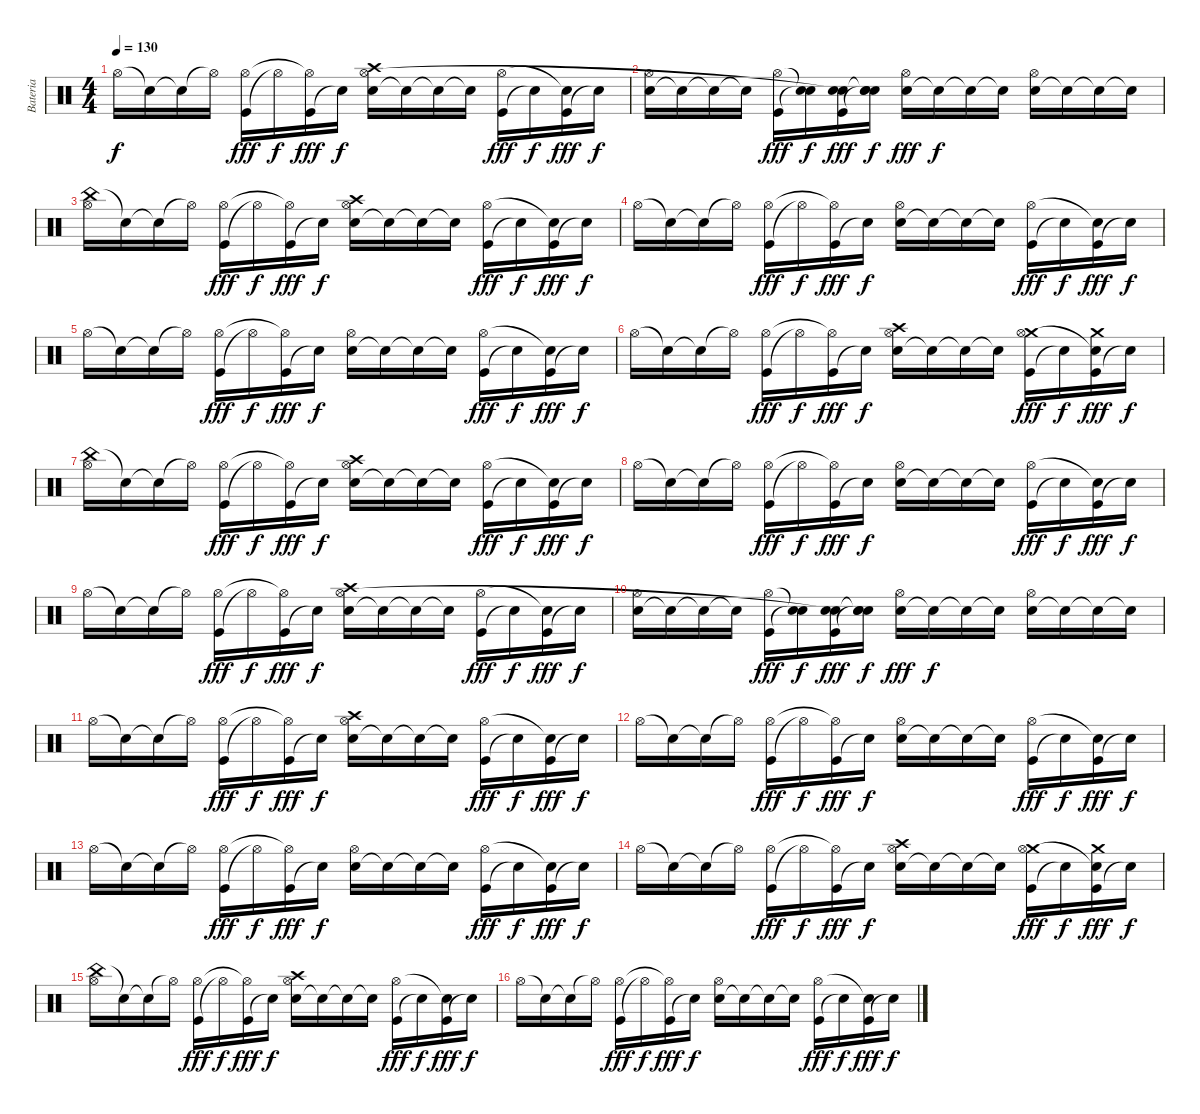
\track ("Bateria" "Bateria") {instrument percussion}
\staff {score}
\articulation defaults
\ts (4 4)
\tempo 130
\clef neutral
\ks c "Hi-Hat (open)".16{dy f} "Snare (hit)"{t}.16 "Snare (hit)"{t}.16 "Hi-Hat (open)"{t}.16
("Kick (hit)" "Hi-Hat (open)").16{dy fff} "Hi-Hat (open)"{t}.16{dy f} ("Kick (hit)" "Hi-Hat (open)"{t}).16{dy fff} "Snare (hit)"{t}.16{dy f} ("Electric Snare (hit)" "Crash high (hit)" "Hi-Hat (open)").16 "Snare (hit)"{t}.16 "Snare (hit)"{t}.16 "Snare (hit)"{t}.16 ("Kick (hit)" "Hi-Hat (open)").16{dy fff} "Snare (hit)"{t}.16{dy f} ("Kick (hit)" "Snare (hit)"{t}).16{dy fff} "Snare (hit)"{t}.16{dy f} |
("Electric Snare (hit)" "Hi-Hat (open)").16 "Snare (hit)"{t}.16 "Snare (hit)"{t}.16 "Snare (hit)"{t}.16 ("Kick (hit)" "Hi-Hat (open)").16{dy fff} ("Snare (hit)"{t} "Snare (hit)"{t}).16{dy f} ("Kick (hit)" "Electric Snare (hit)" "Snare (hit)"{t}).16{dy fff} ("Snare (hit)"{t} "Electric Snare (hit)" "Snare (hit)"{t}).16{dy f} ("Electric Snare (hit)" "Hi-Hat (open)").16{dy fff} "Snare (hit)"{t}.16{dy f} "Snare (hit)"{t}.16 "Snare (hit)"{t}.16 ("Electric Snare (hit)" "Hi-Hat (open)").16 "Snare (hit)"{t}.16 "Snare (hit)"{t}.16 "Snare (hit)"{t}.16 |
("China (hit)" "Hi-Hat (open)").16 "Snare (hit)"{t}.16 "Snare (hit)"{t}.16 "Hi-Hat (open)"{t}.16 ("Kick (hit)" "Hi-Hat (open)").16{dy fff} "Hi-Hat (open)"{t}.16{dy f} ("Kick (hit)" "Hi-Hat (open)"{t}).16{dy fff} "Snare (hit)"{t}.16{dy f} ("Electric Snare (hit)" "Crash high (hit)" "Hi-Hat (open)").16 "Snare (hit)"{t}.16 "Snare (hit)"{t}.16 "Snare (hit)"{t}.16 ("Kick (hit)" "Hi-Hat (open)").16{dy fff} "Snare (hit)"{t}.16{dy f} ("Kick (hit)" "Snare (hit)"{t}).16{dy fff} "Snare (hit)"{t}.16{dy f} |
"Hi-Hat (open)".16 "Snare (hit)"{t}.16 "Snare (hit)"{t}.16 "Hi-Hat (open)"{t}.16 ("Kick (hit)" "Hi-Hat (open)").16{dy fff} "Hi-Hat (open)"{t}.16{dy f} ("Kick (hit)" "Hi-Hat (open)"{t}).16{dy fff} "Snare (hit)"{t}.16{dy f} ("Electric Snare (hit)" "Hi-Hat (open)").16 "Snare (hit)"{t}.16 "Snare (hit)"{t}.16 "Snare (hit)"{t}.16 ("Kick (hit)" "Hi-Hat (open)").16{dy fff} "Snare (hit)"{t}.16{dy f} ("Kick (hit)" "Snare (hit)"{t}).16{dy fff} "Snare (hit)"{t}.16{dy f} |
"Hi-Hat (open)".16 "Snare (hit)"{t}.16 "Snare (hit)"{t}.16 "Hi-Hat (open)"{t}.16 ("Kick (hit)" "Hi-Hat (open)").16{dy fff} "Hi-Hat (open)"{t}.16{dy f} ("Kick (hit)" "Hi-Hat (open)"{t}).16{dy fff} "Snare (hit)"{t}.16{dy f} ("Electric Snare (hit)" "Hi-Hat (open)").16 "Snare (hit)"{t}.16 "Snare (hit)"{t}.16 "Snare (hit)"{t}.16 ("Kick (hit)" "Hi-Hat (open)").16{dy fff} "Snare (hit)"{t}.16{dy f} ("Kick (hit)" "Snare (hit)"{t}).16{dy fff} "Snare (hit)"{t}.16{dy f} |
"Hi-Hat (open)".16 "Snare (hit)"{t}.16 "Snare (hit)"{t}.16 "Hi-Hat (open)"{t}.16 ("Kick (hit)" "Hi-Hat (open)").16{dy fff} "Hi-Hat (open)"{t}.16{dy f} ("Kick (hit)" "Hi-Hat (open)"{t}).16{dy fff} "Snare (hit)"{t}.16{dy f} ("Electric Snare (hit)" "Crash high (hit)" "Hi-Hat (open)").16 "Snare (hit)"{t}.16 "Snare (hit)"{t}.16 "Snare (hit)"{t}.16 ("Kick (hit)" "Crash medium (hit)" "Hi-Hat (open)").16{dy fff} "Snare (hit)"{t}.16{dy f} ("Kick (hit)" "Crash medium (hit)" "Snare (hit)"{t}).16{dy fff} "Snare (hit)"{t}.16{dy f} |
("China (hit)" "Hi-Hat (open)").16 "Snare (hit)"{t}.16 "Snare (hit)"{t}.16 "Hi-Hat (open)"{t}.16 ("Kick (hit)" "Hi-Hat (open)").16{dy fff} "Hi-Hat (open)"{t}.16{dy f} ("Kick (hit)" "Hi-Hat (open)"{t}).16{dy fff} "Snare (hit)"{t}.16{dy f} ("Electric Snare (hit)" "Crash high (hit)" "Hi-Hat (open)").16 "Snare (hit)"{t}.16 "Snare (hit)"{t}.16 "Snare (hit)"{t}.16 ("Kick (hit)" "Hi-Hat (open)").16{dy fff} "Snare (hit)"{t}.16{dy f} ("Kick (hit)" "Snare (hit)"{t}).16{dy fff} "Snare (hit)"{t}.16{dy f} |
"Hi-Hat (open)".16 "Snare (hit)"{t}.16 "Snare (hit)"{t}.16 "Hi-Hat (open)"{t}.16 ("Kick (hit)" "Hi-Hat (open)").16{dy fff} "Hi-Hat (open)"{t}.16{dy f} ("Kick (hit)" "Hi-Hat (open)"{t}).16{dy fff} "Snare (hit)"{t}.16{dy f} ("Electric Snare (hit)" "Hi-Hat (open)").16 "Snare (hit)"{t}.16 "Snare (hit)"{t}.16 "Snare (hit)"{t}.16 ("Kick (hit)" "Hi-Hat (open)").16{dy fff} "Snare (hit)"{t}.16{dy f} ("Kick (hit)" "Snare (hit)"{t}).16{dy fff} "Snare (hit)"{t}.16{dy f} |
"Hi-Hat (open)".16 "Snare (hit)"{t}.16 "Snare (hit)"{t}.16 "Hi-Hat (open)"{t}.16 ("Kick (hit)" "Hi-Hat (open)").16{dy fff} "Hi-Hat (open)"{t}.16{dy f} ("Kick (hit)" "Hi-Hat (open)"{t}).16{dy fff} "Snare (hit)"{t}.16{dy f} ("Electric Snare (hit)" "Crash high (hit)" "Hi-Hat (open)").16 "Snare (hit)"{t}.16 "Snare (hit)"{t}.16 "Snare (hit)"{t}.16 ("Kick (hit)" "Hi-Hat (open)").16{dy fff} "Snare (hit)"{t}.16{dy f} ("Kick (hit)" "Snare (hit)"{t}).16{dy fff} "Snare (hit)"{t}.16{dy f} |
("Electric Snare (hit)" "Hi-Hat (open)").16 "Snare (hit)"{t}.16 "Snare (hit)"{t}.16 "Snare (hit)"{t}.16 ("Kick (hit)" "Hi-Hat (open)").16{dy fff} ("Snare (hit)"{t} "Snare (hit)"{t}).16{dy f} ("Kick (hit)" "Electric Snare (hit)" "Snare (hit)"{t}).16{dy fff} ("Snare (hit)"{t} "Electric Snare (hit)" "Snare (hit)"{t}).16{dy f} ("Electric Snare (hit)" "Hi-Hat (open)").16{dy fff} "Snare (hit)"{t}.16{dy f} "Snare (hit)"{t}.16 "Snare (hit)"{t}.16 ("Electric Snare (hit)" "Hi-Hat (open)").16 "Snare (hit)"{t}.16 "Snare (hit)"{t}.16 "Snare (hit)"{t}.16 |
"Hi-Hat (open)".16 "Snare (hit)"{t}.16 "Snare (hit)"{t}.16 "Hi-Hat (open)"{t}.16 ("Kick (hit)" "Hi-Hat (open)").16{dy fff} "Hi-Hat (open)"{t}.16{dy f} ("Kick (hit)" "Hi-Hat (open)"{t}).16{dy fff} "Snare (hit)"{t}.16{dy f} ("Electric Snare (hit)" "Crash high (hit)" "Hi-Hat (open)").16 "Snare (hit)"{t}.16 "Snare (hit)"{t}.16 "Snare (hit)"{t}.16 ("Kick (hit)" "Hi-Hat (open)").16{dy fff} "Snare (hit)"{t}.16{dy f} ("Kick (hit)" "Snare (hit)"{t}).16{dy fff} "Snare (hit)"{t}.16{dy f} |
"Hi-Hat (open)".16 "Snare (hit)"{t}.16 "Snare (hit)"{t}.16 "Hi-Hat (open)"{t}.16 ("Kick (hit)" "Hi-Hat (open)").16{dy fff} "Hi-Hat (open)"{t}.16{dy f} ("Kick (hit)" "Hi-Hat (open)"{t}).16{dy fff} "Snare (hit)"{t}.16{dy f} ("Electric Snare (hit)" "Hi-Hat (open)").16 "Snare (hit)"{t}.16 "Snare (hit)"{t}.16 "Snare (hit)"{t}.16 ("Kick (hit)" "Hi-Hat (open)").16{dy fff} "Snare (hit)"{t}.16{dy f} ("Kick (hit)" "Snare (hit)"{t}).16{dy fff} "Snare (hit)"{t}.16{dy f} |
"Hi-Hat (open)".16 "Snare (hit)"{t}.16 "Snare (hit)"{t}.16 "Hi-Hat (open)"{t}.16 ("Kick (hit)" "Hi-Hat (open)").16{dy fff} "Hi-Hat (open)"{t}.16{dy f} ("Kick (hit)" "Hi-Hat (open)"{t}).16{dy fff} "Snare (hit)"{t}.16{dy f} ("Electric Snare (hit)" "Hi-Hat (open)").16 "Snare (hit)"{t}.16 "Snare (hit)"{t}.16 "Snare (hit)"{t}.16 ("Kick (hit)" "Hi-Hat (open)").16{dy fff} "Snare (hit)"{t}.16{dy f} ("Kick (hit)" "Snare (hit)"{t}).16{dy fff} "Snare (hit)"{t}.16{dy f} |
"Hi-Hat (open)".16 "Snare (hit)"{t}.16 "Snare (hit)"{t}.16 "Hi-Hat (open)"{t}.16 ("Kick (hit)" "Hi-Hat (open)").16{dy fff} "Hi-Hat (open)"{t}.16{dy f} ("Kick (hit)" "Hi-Hat (open)"{t}).16{dy fff} "Snare (hit)"{t}.16{dy f} ("Electric Snare (hit)" "Crash high (hit)" "Hi-Hat (open)").16 "Snare (hit)"{t}.16 "Snare (hit)"{t}.16 "Snare (hit)"{t}.16 ("Kick (hit)" "Crash medium (hit)" "Hi-Hat (open)").16{dy fff} "Snare (hit)"{t}.16{dy f} ("Kick (hit)" "Crash medium (hit)" "Snare (hit)"{t}).16{dy fff} "Snare (hit)"{t}.16{dy f} |
("China (hit)" "Hi-Hat (open)").16 "Snare (hit)"{t}.16 "Snare (hit)"{t}.16 "Hi-Hat (open)"{t}.16 ("Kick (hit)" "Hi-Hat (open)").16{dy fff} "Hi-Hat (open)"{t}.16{dy f} ("Kick (hit)" "Hi-Hat (open)"{t}).16{dy fff} "Snare (hit)"{t}.16{dy f} ("Electric Snare (hit)" "Crash high (hit)" "Hi-Hat (open)").16 "Snare (hit)"{t}.16 "Snare (hit)"{t}.16 "Snare (hit)"{t}.16 ("Kick (hit)" "Hi-Hat (open)").16{dy fff} "Snare (hit)"{t}.16{dy f} ("Kick (hit)" "Snare (hit)"{t}).16{dy fff} "Snare (hit)"{t}.16{dy f} |
"Hi-Hat (open)".16 "Snare (hit)"{t}.16 "Snare (hit)"{t}.16 "Hi-Hat (open)"{t}.16 ("Kick (hit)" "Hi-Hat (open)").16{dy fff} "Hi-Hat (open)"{t}.16{dy f} ("Kick (hit)" "Hi-Hat (open)"{t}).16{dy fff} "Snare (hit)"{t}.16{dy f} ("Electric Snare (hit)" "Hi-Hat (open)").16 "Snare (hit)"{t}.16 "Snare (hit)"{t}.16 "Snare (hit)"{t}.16 ("Kick (hit)" "Hi-Hat (open)").16{dy fff} "Snare (hit)"{t}.16{dy f} ("Kick (hit)" "Snare (hit)"{t}).16{dy fff} "Snare (hit)"{t}.16{dy f}
